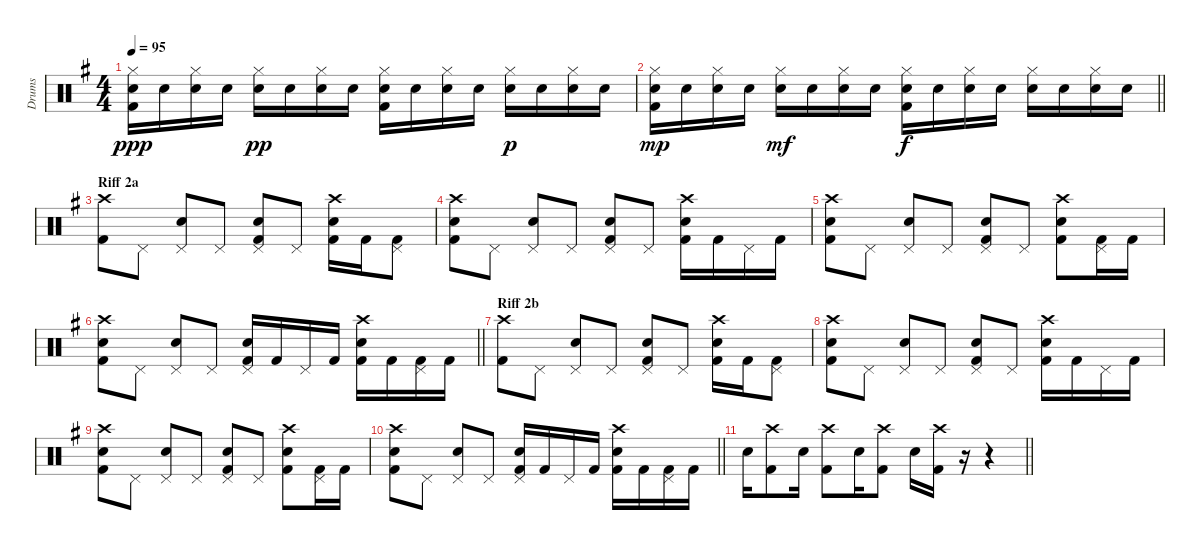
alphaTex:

\track ("Drums" "Drums") {instrument percussion}
\staff {score}
\articulation defaults
\ts (4 4)
\tempo 95
\clef neutral
\ks eminor
("Hi-Hat (closed)" "Electric Snare (hit)" "Kick (hit) 2").16{dy ppp volume 14} "Electric Snare (hit)".16 ("Hi-Hat (closed)" "Electric Snare (hit)").16 "Electric Snare (hit)".16 ("Hi-Hat (closed)" "Electric Snare (hit)").16{dy pp} "Electric Snare (hit)".16 ("Hi-Hat (closed)" "Electric Snare (hit)").16 "Electric Snare (hit)".16 ("Hi-Hat (closed)" "Electric Snare (hit)" "Kick (hit) 2").16 "Electric Snare (hit)".16 ("Hi-Hat (closed)" "Electric Snare (hit)").16 "Electric Snare (hit)".16 ("Hi-Hat (closed)" "Electric Snare (hit)").16{dy p} "Electric Snare (hit)".16 ("Hi-Hat (closed)" "Electric Snare (hit)").16 "Electric Snare (hit)".16 |
\barLineRight lightlight
("Hi-Hat (closed)" "Electric Snare (hit)" "Kick (hit) 2").16{dy mp} "Electric Snare (hit)".16 ("Hi-Hat (closed)" "Electric Snare (hit)").16 "Electric Snare (hit)".16 ("Hi-Hat (closed)" "Electric Snare (hit)").16{dy mf} "Electric Snare (hit)".16 ("Hi-Hat (closed)" "Electric Snare (hit)").16 "Electric Snare (hit)".16 ("Hi-Hat (closed)" "Electric Snare (hit)" "Kick (hit) 2").16{dy f} "Electric Snare (hit)".16 ("Hi-Hat (closed)" "Electric Snare (hit)").16 "Electric Snare (hit)".16 ("Hi-Hat (closed)" "Electric Snare (hit)").16 "Electric Snare (hit)".16 ("Hi-Hat (closed)" "Electric Snare (hit)").16 "Electric Snare (hit)".16 |
\section ("" "Riff 2a")
("Crash high (hit)" "Kick (hit) 2").8 "Pedal Hi-Hat (hit)".8 ("Pedal Hi-Hat (hit)" "Electric Snare (hit)").8 "Pedal Hi-Hat (hit)".8 ("Pedal Hi-Hat (hit)" "Electric Snare (hit)" "Kick (hit) 2").8 "Pedal Hi-Hat (hit)".8 ("Crash high (hit)" "Electric Snare (hit)" "Kick (hit) 2").16 "Kick (hit) 2".16 ("Pedal Hi-Hat (hit)" "Kick (hit) 2").8 |
("Crash high (hit)" "Electric Snare (hit)" "Kick (hit) 2").8 "Pedal Hi-Hat (hit)".8 ("Pedal Hi-Hat (hit)" "Electric Snare (hit)").8 "Pedal Hi-Hat (hit)".8 ("Pedal Hi-Hat (hit)" "Electric Snare (hit)" "Kick (hit) 2").8 "Pedal Hi-Hat (hit)".8 ("Crash high (hit)" "Electric Snare (hit)" "Kick (hit) 2").16 "Kick (hit) 2".16 "Pedal Hi-Hat (hit)".16 "Kick (hit) 2".16 |
("Crash high (hit)" "Electric Snare (hit)" "Kick (hit) 2").8 "Pedal Hi-Hat (hit)".8 ("Pedal Hi-Hat (hit)" "Electric Snare (hit)").8 "Pedal Hi-Hat (hit)".8 ("Pedal Hi-Hat (hit)" "Electric Snare (hit)" "Kick (hit) 2").8 "Pedal Hi-Hat (hit)".8 ("Crash high (hit)" "Electric Snare (hit)" "Kick (hit) 2").8 ("Pedal Hi-Hat (hit)" "Kick (hit) 2").16 "Kick (hit) 2".16 |
\barLineRight lightlight
("Crash high (hit)" "Electric Snare (hit)" "Kick (hit) 2").8 "Pedal Hi-Hat (hit)".8 ("Pedal Hi-Hat (hit)" "Electric Snare (hit)").8 "Pedal Hi-Hat (hit)".8 ("Pedal Hi-Hat (hit)" "Electric Snare (hit)" "Kick (hit) 2").16 "Kick (hit) 2".16 "Pedal Hi-Hat (hit)".16 "Kick (hit) 2".16 ("Crash high (hit)" "Electric Snare (hit)" "Kick (hit) 2").16 "Kick (hit) 2".16 ("Pedal Hi-Hat (hit)" "Kick (hit) 2").16 "Kick (hit) 2".16 |
\section ("" "Riff 2b")
("Crash high (hit)" "Kick (hit) 2").8 "Pedal Hi-Hat (hit)".8 ("Pedal Hi-Hat (hit)" "Electric Snare (hit)").8 "Pedal Hi-Hat (hit)".8 ("Pedal Hi-Hat (hit)" "Electric Snare (hit)" "Kick (hit) 2").8 "Pedal Hi-Hat (hit)".8 ("Crash high (hit)" "Electric Snare (hit)" "Kick (hit) 2").16 "Kick (hit) 2".16 ("Pedal Hi-Hat (hit)" "Kick (hit) 2").8 |
("Crash high (hit)" "Electric Snare (hit)" "Kick (hit) 2").8 "Pedal Hi-Hat (hit)".8 ("Pedal Hi-Hat (hit)" "Electric Snare (hit)").8 "Pedal Hi-Hat (hit)".8 ("Pedal Hi-Hat (hit)" "Electric Snare (hit)" "Kick (hit) 2").8 "Pedal Hi-Hat (hit)".8 ("Crash high (hit)" "Electric Snare (hit)" "Kick (hit) 2").16 "Kick (hit) 2".16 "Pedal Hi-Hat (hit)".16 "Kick (hit) 2".16 |
("Crash high (hit)" "Electric Snare (hit)" "Kick (hit) 2").8 "Pedal Hi-Hat (hit)".8 ("Pedal Hi-Hat (hit)" "Electric Snare (hit)").8 "Pedal Hi-Hat (hit)".8 ("Pedal Hi-Hat (hit)" "Electric Snare (hit)" "Kick (hit) 2").8 "Pedal Hi-Hat (hit)".8 ("Crash high (hit)" "Electric Snare (hit)" "Kick (hit) 2").8 ("Pedal Hi-Hat (hit)" "Kick (hit) 2").16 "Kick (hit) 2".16 |
\barLineRight lightlight
("Crash high (hit)" "Electric Snare (hit)" "Kick (hit) 2").8 "Pedal Hi-Hat (hit)".8 ("Pedal Hi-Hat (hit)" "Electric Snare (hit)").8 "Pedal Hi-Hat (hit)".8 ("Pedal Hi-Hat (hit)" "Electric Snare (hit)" "Kick (hit) 2").16 "Kick (hit) 2".16 "Pedal Hi-Hat (hit)".16 "Kick (hit) 2".16 ("Crash high (hit)" "Electric Snare (hit)" "Kick (hit) 2").16 "Kick (hit) 2".16 ("Pedal Hi-Hat (hit)" "Kick (hit) 2").16 "Kick (hit) 2".16 |
\barLineRight lightlight "Electric Snare (hit)".16
("Crash high (hit)" "Kick (hit) 2").8 "Electric Snare (hit)".16 ("Crash high (hit)" "Kick (hit) 2").8 "Electric Snare (hit)".16 ("Crash high (hit)" "Kick (hit) 2").8 "Electric Snare (hit)".16 ("Crash high (hit)" "Kick (hit) 2").16 r.16{volume 0} r.4
